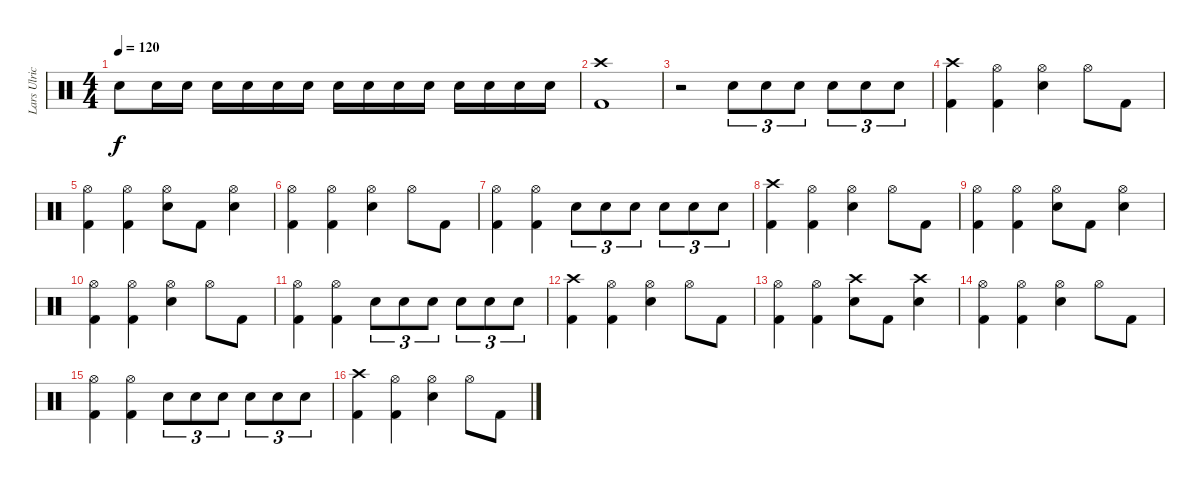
\track ("Lars Ulrich" "Lars Ulric") {instrument percussion}
\staff {score}
\articulation defaults
\ts (4 4)
\tempo 120
\clef neutral
\ks c "Electric Snare (hit)".8{dy f} "Electric Snare (hit)".16 "Electric Snare (hit)".16 "Electric Snare (hit)".16 "Electric Snare (hit)".16 "Electric Snare (hit)".16 "Electric Snare (hit)".16 "Electric Snare (hit)".16 "Electric Snare (hit)".16 "Electric Snare (hit)".16 "Electric Snare (hit)".16 "Electric Snare (hit)".16 "Electric Snare (hit)".16 "Electric Snare (hit)".16 "Electric Snare (hit)".16
|
("Crash high (hit)" "Kick (hit) 2").1 |
r.2 "Electric Snare (hit)".8{tu (3 2)} "Electric Snare (hit)".8{tu (3 2)} "Electric Snare (hit)".8{tu (3 2)} "Electric Snare (hit)".8{tu (3 2)} "Electric Snare (hit)".8{tu (3 2)} "Electric Snare (hit)".8{tu (3 2)} |
("Crash high (hit)" "Kick (hit) 2").4 ("Hi-Hat (open)" "Kick (hit) 2").4 ("Hi-Hat (open)" "Electric Snare (hit)").4 "Hi-Hat (open)".8 "Kick (hit) 2".8 |
("Hi-Hat (open)" "Kick (hit) 2").4 ("Hi-Hat (open)" "Kick (hit) 2").4 ("Hi-Hat (open)" "Electric Snare (hit)").8 "Kick (hit) 2".8 ("Hi-Hat (open)" "Electric Snare (hit)").4 |
("Hi-Hat (open)" "Kick (hit) 2").4 ("Hi-Hat (open)" "Kick (hit) 2").4 ("Hi-Hat (open)" "Electric Snare (hit)").4 "Hi-Hat (open)".8 "Kick (hit) 2".8 |
("Hi-Hat (open)" "Kick (hit) 2").4 ("Hi-Hat (open)" "Kick (hit) 2").4 "Electric Snare (hit)".8{tu (3 2)} "Electric Snare (hit)".8{tu (3 2)} "Electric Snare (hit)".8{tu (3 2)} "Electric Snare (hit)".8{tu (3 2)} "Electric Snare (hit)".8{tu (3 2)} "Electric Snare (hit)".8{tu (3 2)} |
("Crash high (hit)" "Kick (hit) 2").4 ("Hi-Hat (open)" "Kick (hit) 2").4 ("Hi-Hat (open)" "Electric Snare (hit)").4 "Hi-Hat (open)".8 "Kick (hit) 2".8 |
("Hi-Hat (open)" "Kick (hit) 2").4 ("Hi-Hat (open)" "Kick (hit) 2").4 ("Hi-Hat (open)" "Electric Snare (hit)").8 "Kick (hit) 2".8 ("Hi-Hat (open)" "Electric Snare (hit)").4 |
("Hi-Hat (open)" "Kick (hit) 2").4 ("Hi-Hat (open)" "Kick (hit) 2").4 ("Hi-Hat (open)" "Electric Snare (hit)").4 "Hi-Hat (open)".8 "Kick (hit) 2".8 |
("Hi-Hat (open)" "Kick (hit) 2").4 ("Hi-Hat (open)" "Kick (hit) 2").4 "Electric Snare (hit)".8{tu (3 2)} "Electric Snare (hit)".8{tu (3 2)} "Electric Snare (hit)".8{tu (3 2)} "Electric Snare (hit)".8{tu (3 2)} "Electric Snare (hit)".8{tu (3 2)} "Electric Snare (hit)".8{tu (3 2)} |
("Crash high (hit)" "Kick (hit) 2").4 ("Hi-Hat (open)" "Kick (hit) 2").4 ("Hi-Hat (open)" "Electric Snare (hit)").4 "Hi-Hat (open)".8 "Kick (hit) 2".8 |
("Hi-Hat (open)" "Kick (hit) 2").4 ("Hi-Hat (open)" "Kick (hit) 2").4 ("Crash high (hit)" "Electric Snare (hit)").8 "Kick (hit) 2".8 ("Crash high (hit)" "Electric Snare (hit)").4 |
("Hi-Hat (open)" "Kick (hit) 2").4 ("Hi-Hat (open)" "Kick (hit) 2").4 ("Hi-Hat (open)" "Electric Snare (hit)").4 "Hi-Hat (open)".8 "Kick (hit) 2".8 |
("Hi-Hat (open)" "Kick (hit) 2").4 ("Hi-Hat (open)" "Kick (hit) 2").4 "Electric Snare (hit)".8{tu (3 2)} "Electric Snare (hit)".8{tu (3 2)} "Electric Snare (hit)".8{tu (3 2)} "Electric Snare (hit)".8{tu (3 2)} "Electric Snare (hit)".8{tu (3 2)} "Electric Snare (hit)".8{tu (3 2)} |
("Crash high (hit)" "Kick (hit) 2").4 ("Hi-Hat (open)" "Kick (hit) 2").4 ("Hi-Hat (open)" "Electric Snare (hit)").4 "Hi-Hat (open)".8 "Kick (hit) 2".8
